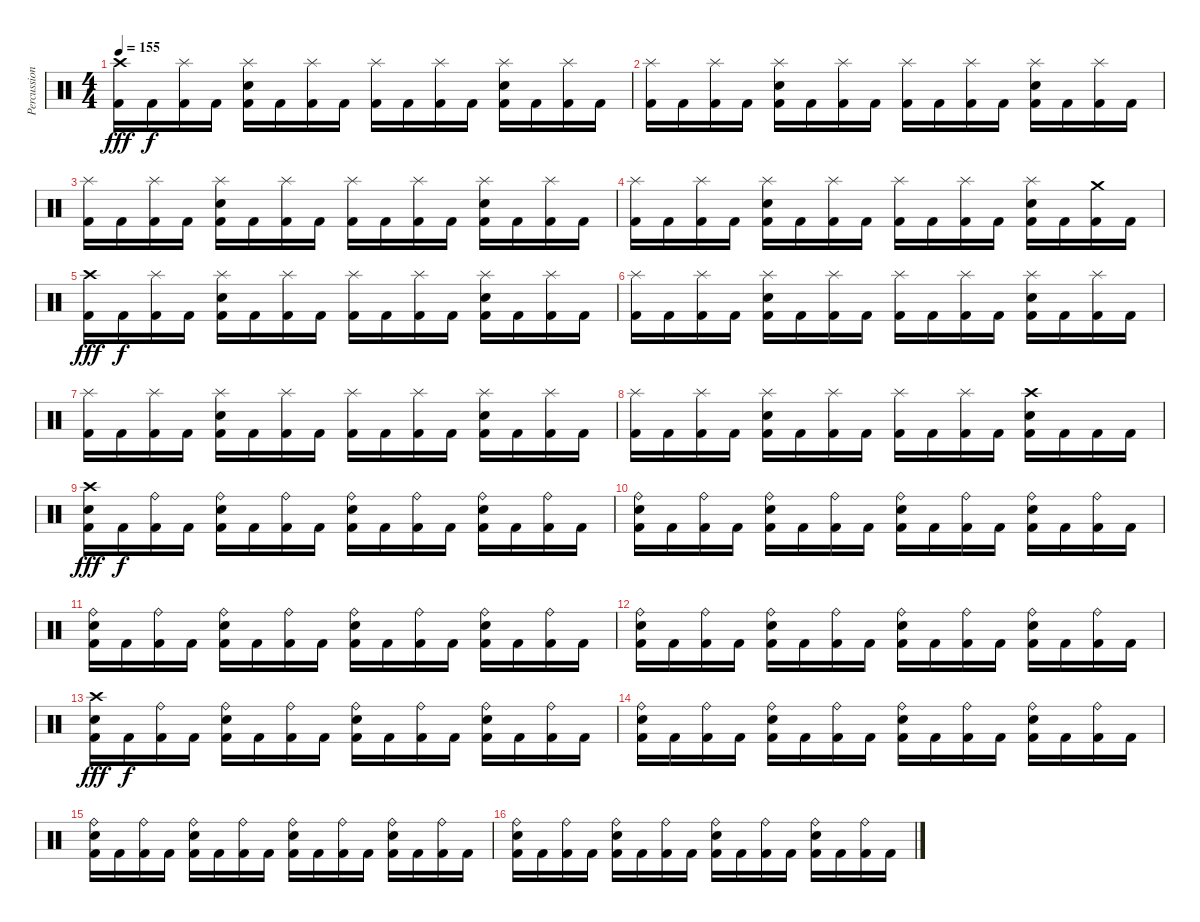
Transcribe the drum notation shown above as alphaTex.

\track ("Percussion" "Percussion") {instrument percussion}
\staff {score}
\articulation defaults
\ts (4 4)
\tempo 155
\clef neutral
\ks c
("Crash high (hit)" "Kick (hit) 2").16{dy fff} "Kick (hit) 2".16{dy f} ("Splash (hit)" "Kick (hit) 2").16 "Kick (hit) 2".16 ("Splash (hit)" "Electric Snare (hit)" "Kick (hit) 2").16 "Kick (hit) 2".16 ("Splash (hit)" "Kick (hit) 2").16 "Kick (hit) 2".16 ("Splash (hit)" "Kick (hit) 2").16 "Kick (hit) 2".16 ("Splash (hit)" "Kick (hit) 2").16 "Kick (hit) 2".16 ("Splash (hit)" "Electric Snare (hit)" "Kick (hit) 2").16 "Kick (hit) 2".16 ("Splash (hit)" "Kick (hit) 2").16 "Kick (hit) 2".16 |
("Splash (hit)" "Kick (hit) 2").16 "Kick (hit) 2".16 ("Splash (hit)" "Kick (hit) 2").16 "Kick (hit) 2".16 ("Splash (hit)" "Electric Snare (hit)" "Kick (hit) 2").16 "Kick (hit) 2".16 ("Splash (hit)" "Kick (hit) 2").16 "Kick (hit) 2".16 ("Splash (hit)" "Kick (hit) 2").16 "Kick (hit) 2".16 ("Splash (hit)" "Kick (hit) 2").16 "Kick (hit) 2".16 ("Splash (hit)" "Electric Snare (hit)" "Kick (hit) 2").16 "Kick (hit) 2".16 ("Splash (hit)" "Kick (hit) 2").16 "Kick (hit) 2".16 |
("Splash (hit)" "Kick (hit) 2").16 "Kick (hit) 2".16 ("Splash (hit)" "Kick (hit) 2").16 "Kick (hit) 2".16 ("Splash (hit)" "Electric Snare (hit)" "Kick (hit) 2").16 "Kick (hit) 2".16 ("Splash (hit)" "Kick (hit) 2").16 "Kick (hit) 2".16 ("Splash (hit)" "Kick (hit) 2").16 "Kick (hit) 2".16 ("Splash (hit)" "Kick (hit) 2").16 "Kick (hit) 2".16 ("Splash (hit)" "Electric Snare (hit)" "Kick (hit) 2").16 "Kick (hit) 2".16 ("Splash (hit)" "Kick (hit) 2").16 "Kick (hit) 2".16 |
("Splash (hit)" "Kick (hit) 2").16 "Kick (hit) 2".16 ("Splash (hit)" "Kick (hit) 2").16 "Kick (hit) 2".16 ("Splash (hit)" "Electric Snare (hit)" "Kick (hit) 2").16 "Kick (hit) 2".16 ("Splash (hit)" "Kick (hit) 2").16 "Kick (hit) 2".16 ("Splash (hit)" "Kick (hit) 2").16 "Kick (hit) 2".16 ("Splash (hit)" "Kick (hit) 2").16 "Kick (hit) 2".16 ("Splash (hit)" "Electric Snare (hit)" "Kick (hit) 2").16 "Kick (hit) 2".16 ("Crash medium (hit)" "Kick (hit) 2").16 "Kick (hit) 2".16 |
("Crash high (hit)" "Kick (hit) 2").16{dy fff} "Kick (hit) 2".16{dy f} ("Splash (hit)" "Kick (hit) 2").16 "Kick (hit) 2".16 ("Splash (hit)" "Electric Snare (hit)" "Kick (hit) 2").16 "Kick (hit) 2".16 ("Splash (hit)" "Kick (hit) 2").16 "Kick (hit) 2".16 ("Splash (hit)" "Kick (hit) 2").16 "Kick (hit) 2".16 ("Splash (hit)" "Kick (hit) 2").16 "Kick (hit) 2".16 ("Splash (hit)" "Electric Snare (hit)" "Kick (hit) 2").16 "Kick (hit) 2".16 ("Splash (hit)" "Kick (hit) 2").16 "Kick (hit) 2".16 |
("Splash (hit)" "Kick (hit) 2").16 "Kick (hit) 2".16 ("Splash (hit)" "Kick (hit) 2").16 "Kick (hit) 2".16 ("Splash (hit)" "Electric Snare (hit)" "Kick (hit) 2").16 "Kick (hit) 2".16 ("Splash (hit)" "Kick (hit) 2").16 "Kick (hit) 2".16 ("Splash (hit)" "Kick (hit) 2").16 "Kick (hit) 2".16 ("Splash (hit)" "Kick (hit) 2").16 "Kick (hit) 2".16 ("Splash (hit)" "Electric Snare (hit)" "Kick (hit) 2").16 "Kick (hit) 2".16 ("Splash (hit)" "Kick (hit) 2").16 "Kick (hit) 2".16 |
("Splash (hit)" "Kick (hit) 2").16 "Kick (hit) 2".16 ("Splash (hit)" "Kick (hit) 2").16 "Kick (hit) 2".16 ("Splash (hit)" "Electric Snare (hit)" "Kick (hit) 2").16 "Kick (hit) 2".16 ("Splash (hit)" "Kick (hit) 2").16 "Kick (hit) 2".16 ("Splash (hit)" "Kick (hit) 2").16 "Kick (hit) 2".16 ("Splash (hit)" "Kick (hit) 2").16 "Kick (hit) 2".16 ("Splash (hit)" "Electric Snare (hit)" "Kick (hit) 2").16 "Kick (hit) 2".16 ("Splash (hit)" "Kick (hit) 2").16 "Kick (hit) 2".16 |
("Splash (hit)" "Kick (hit) 2").16 "Kick (hit) 2".16 ("Splash (hit)" "Kick (hit) 2").16 "Kick (hit) 2".16 ("Splash (hit)" "Electric Snare (hit)" "Kick (hit) 2").16 "Kick (hit) 2".16 ("Splash (hit)" "Kick (hit) 2").16 "Kick (hit) 2".16 ("Splash (hit)" "Kick (hit) 2").16 "Kick (hit) 2".16 ("Splash (hit)" "Kick (hit) 2").16 "Kick (hit) 2".16 ("Crash high (hit)" "Electric Snare (hit)" "Kick (hit) 2").16 "Kick (hit) 2".16 "Kick (hit) 2".16 "Kick (hit) 2".16 |
("Crash high (hit)" "Electric Snare (hit)" "Kick (hit) 2").16{dy fff} "Kick (hit) 2".16{dy f} ("Ride (bell)" "Kick (hit) 2").16 "Kick (hit) 2".16 ("Ride (bell)" "Electric Snare (hit)" "Kick (hit) 2").16 "Kick (hit) 2".16 ("Ride (bell)" "Kick (hit) 2").16 "Kick (hit) 2".16 ("Ride (bell)" "Electric Snare (hit)" "Kick (hit) 2").16 "Kick (hit) 2".16 ("Ride (bell)" "Kick (hit) 2").16 "Kick (hit) 2".16 ("Ride (bell)" "Electric Snare (hit)" "Kick (hit) 2").16 "Kick (hit) 2".16 ("Ride (bell)" "Kick (hit) 2").16 "Kick (hit) 2".16 |
("Ride (bell)" "Electric Snare (hit)" "Kick (hit) 2").16 "Kick (hit) 2".16 ("Ride (bell)" "Kick (hit) 2").16 "Kick (hit) 2".16 ("Ride (bell)" "Electric Snare (hit)" "Kick (hit) 2").16 "Kick (hit) 2".16 ("Ride (bell)" "Kick (hit) 2").16 "Kick (hit) 2".16 ("Ride (bell)" "Electric Snare (hit)" "Kick (hit) 2").16 "Kick (hit) 2".16 ("Ride (bell)" "Kick (hit) 2").16 "Kick (hit) 2".16 ("Ride (bell)" "Electric Snare (hit)" "Kick (hit) 2").16 "Kick (hit) 2".16 ("Ride (bell)" "Kick (hit) 2").16 "Kick (hit) 2".16 |
("Ride (bell)" "Electric Snare (hit)" "Kick (hit) 2").16 "Kick (hit) 2".16 ("Ride (bell)" "Kick (hit) 2").16 "Kick (hit) 2".16 ("Ride (bell)" "Electric Snare (hit)" "Kick (hit) 2").16 "Kick (hit) 2".16 ("Ride (bell)" "Kick (hit) 2").16 "Kick (hit) 2".16 ("Ride (bell)" "Electric Snare (hit)" "Kick (hit) 2").16 "Kick (hit) 2".16 ("Ride (bell)" "Kick (hit) 2").16 "Kick (hit) 2".16 ("Ride (bell)" "Electric Snare (hit)" "Kick (hit) 2").16 "Kick (hit) 2".16 ("Ride (bell)" "Kick (hit) 2").16 "Kick (hit) 2".16 |
("Ride (bell)" "Electric Snare (hit)" "Kick (hit) 2").16 "Kick (hit) 2".16 ("Ride (bell)" "Kick (hit) 2").16 "Kick (hit) 2".16 ("Ride (bell)" "Electric Snare (hit)" "Kick (hit) 2").16 "Kick (hit) 2".16 ("Ride (bell)" "Kick (hit) 2").16 "Kick (hit) 2".16 ("Ride (bell)" "Electric Snare (hit)" "Kick (hit) 2").16 "Kick (hit) 2".16 ("Ride (bell)" "Kick (hit) 2").16 "Kick (hit) 2".16 ("Ride (bell)" "Electric Snare (hit)" "Kick (hit) 2").16 "Kick (hit) 2".16 ("Ride (bell)" "Kick (hit) 2").16 "Kick (hit) 2".16 |
("Crash high (hit)" "Electric Snare (hit)" "Kick (hit) 2").16{dy fff} "Kick (hit) 2".16{dy f} ("Ride (bell)" "Kick (hit) 2").16 "Kick (hit) 2".16 ("Ride (bell)" "Electric Snare (hit)" "Kick (hit) 2").16 "Kick (hit) 2".16 ("Ride (bell)" "Kick (hit) 2").16 "Kick (hit) 2".16 ("Ride (bell)" "Electric Snare (hit)" "Kick (hit) 2").16 "Kick (hit) 2".16 ("Ride (bell)" "Kick (hit) 2").16 "Kick (hit) 2".16 ("Ride (bell)" "Electric Snare (hit)" "Kick (hit) 2").16 "Kick (hit) 2".16 ("Ride (bell)" "Kick (hit) 2").16 "Kick (hit) 2".16 |
("Ride (bell)" "Electric Snare (hit)" "Kick (hit) 2").16 "Kick (hit) 2".16 ("Ride (bell)" "Kick (hit) 2").16 "Kick (hit) 2".16 ("Ride (bell)" "Electric Snare (hit)" "Kick (hit) 2").16 "Kick (hit) 2".16 ("Ride (bell)" "Kick (hit) 2").16 "Kick (hit) 2".16 ("Ride (bell)" "Electric Snare (hit)" "Kick (hit) 2").16 "Kick (hit) 2".16 ("Ride (bell)" "Kick (hit) 2").16 "Kick (hit) 2".16 ("Ride (bell)" "Electric Snare (hit)" "Kick (hit) 2").16 "Kick (hit) 2".16 ("Ride (bell)" "Kick (hit) 2").16 "Kick (hit) 2".16 |
("Ride (bell)" "Electric Snare (hit)" "Kick (hit) 2").16 "Kick (hit) 2".16 ("Ride (bell)" "Kick (hit) 2").16 "Kick (hit) 2".16 ("Ride (bell)" "Electric Snare (hit)" "Kick (hit) 2").16 "Kick (hit) 2".16 ("Ride (bell)" "Kick (hit) 2").16 "Kick (hit) 2".16 ("Ride (bell)" "Electric Snare (hit)" "Kick (hit) 2").16 "Kick (hit) 2".16 ("Ride (bell)" "Kick (hit) 2").16 "Kick (hit) 2".16 ("Ride (bell)" "Electric Snare (hit)" "Kick (hit) 2").16 "Kick (hit) 2".16 ("Ride (bell)" "Kick (hit) 2").16 "Kick (hit) 2".16 |
("Ride (bell)" "Electric Snare (hit)" "Kick (hit) 2").16 "Kick (hit) 2".16 ("Ride (bell)" "Kick (hit) 2").16 "Kick (hit) 2".16 ("Ride (bell)" "Electric Snare (hit)" "Kick (hit) 2").16 "Kick (hit) 2".16 ("Ride (bell)" "Kick (hit) 2").16 "Kick (hit) 2".16 ("Ride (bell)" "Electric Snare (hit)" "Kick (hit) 2").16 "Kick (hit) 2".16 ("Ride (bell)" "Kick (hit) 2").16 "Kick (hit) 2".16 ("Ride (bell)" "Electric Snare (hit)" "Kick (hit) 2").16 "Kick (hit) 2".16 ("Ride (bell)" "Kick (hit) 2").16 "Kick (hit) 2".16
